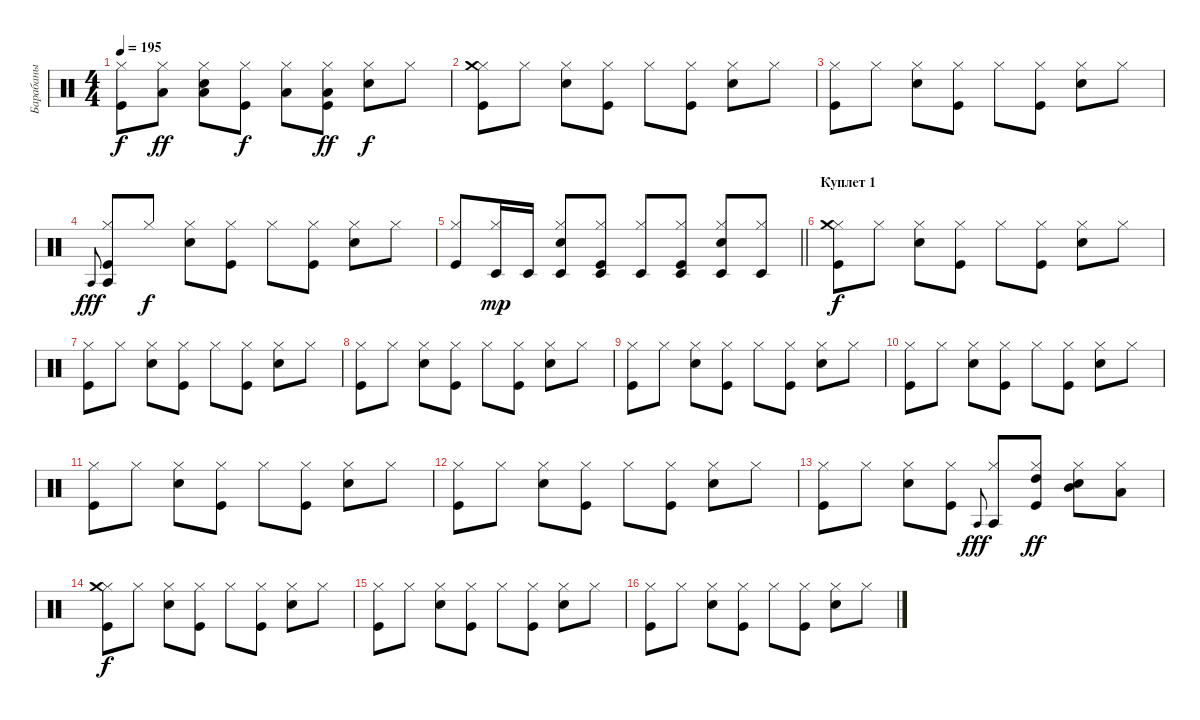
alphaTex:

\track ("Барабаны" "Барабаны") {instrument percussion}
\staff {score}
\articulation defaults
\ts (4 4)
\tempo 195
\clef neutral
\ks c
("Kick (hit)" "Hi-Hat (closed)").8{dy f} ("Hi-Hat (closed)" "Low Tom (hit)").8{dy ff} ("Snare (hit) 2" "Hi-Hat (closed)" "Low Tom (hit)").8 ("Kick (hit)" "Hi-Hat (closed)").8{dy f} ("Hi-Hat (closed)" "Low Tom (hit)").8 ("Kick (hit)" "Hi-Hat (closed)" "Low Tom (hit)").8{dy ff} ("Snare (hit) 2" "Hi-Hat (closed)").8{dy f} "Hi-Hat (closed)".8 |
("Kick (hit)" "Hi-Hat (closed)" "Crash medium (hit)").8 "Hi-Hat (closed)".8 ("Snare (hit) 2" "Hi-Hat (closed)").8 ("Kick (hit)" "Hi-Hat (closed)").8 "Hi-Hat (closed)".8 ("Kick (hit)" "Hi-Hat (closed)").8 ("Snare (hit) 2" "Hi-Hat (closed)").8 "Hi-Hat (closed)".8 |
("Kick (hit)" "Hi-Hat (closed)").8 "Hi-Hat (closed)".8 ("Snare (hit) 2" "Hi-Hat (closed)").8 ("Kick (hit)" "Hi-Hat (closed)").8 "Hi-Hat (closed)".8 ("Kick (hit)" "Hi-Hat (closed)").8 ("Snare (hit) 2" "Hi-Hat (closed)").8 "Hi-Hat (closed)".8 |
"Agogo tow (hit)".8{gr onbeat dy fff} ("Kick (hit)" "Hi-Hat (closed)" "Agogo tow (hit)").8 "Hi-Hat (closed)".8{dy f} ("Snare (hit) 2" "Hi-Hat (closed)").8 ("Kick (hit)" "Hi-Hat (closed)").8 "Hi-Hat (closed)".8 ("Kick (hit)" "Hi-Hat (closed)").8 ("Snare (hit) 2" "Hi-Hat (closed)").8 "Hi-Hat (closed)".8 |
\barLineRight lightlight
("Kick (hit)" "Hi-Hat (closed)").8 ("Hi-Hat (closed)" "Timbale low (hit)").16{dy mp} "Timbale low (hit)".16 ("Snare (hit) 2" "Hi-Hat (closed)" "Timbale low (hit)").8 ("Kick (hit)" "Hi-Hat (closed)" "Timbale low (hit)").8 ("Hi-Hat (closed)" "Timbale low (hit)").8 ("Kick (hit)" "Hi-Hat (closed)" "Timbale low (hit)").8 ("Snare (hit) 2" "Hi-Hat (closed)" "Timbale low (hit)").8 ("Hi-Hat (closed)" "Timbale low (hit)").8 |
\section ("" "Куплет 1")
("Kick (hit)" "Hi-Hat (closed)" "Crash medium (hit)").8{dy f} "Hi-Hat (closed)".8 ("Snare (hit) 2" "Hi-Hat (closed)").8 ("Kick (hit)" "Hi-Hat (closed)").8 "Hi-Hat (closed)".8 ("Kick (hit)" "Hi-Hat (closed)").8 ("Snare (hit) 2" "Hi-Hat (closed)").8 "Hi-Hat (closed)".8 |
("Kick (hit)" "Hi-Hat (closed)").8 "Hi-Hat (closed)".8 ("Snare (hit) 2" "Hi-Hat (closed)").8 ("Kick (hit)" "Hi-Hat (closed)").8 "Hi-Hat (closed)".8 ("Kick (hit)" "Hi-Hat (closed)").8 ("Snare (hit) 2" "Hi-Hat (closed)").8 "Hi-Hat (closed)".8 |
("Kick (hit)" "Hi-Hat (closed)").8 "Hi-Hat (closed)".8 ("Snare (hit) 2" "Hi-Hat (closed)").8 ("Kick (hit)" "Hi-Hat (closed)").8 "Hi-Hat (closed)".8 ("Kick (hit)" "Hi-Hat (closed)").8 ("Snare (hit) 2" "Hi-Hat (closed)").8 "Hi-Hat (closed)".8 |
("Kick (hit)" "Hi-Hat (closed)").8 "Hi-Hat (closed)".8 ("Snare (hit) 2" "Hi-Hat (closed)").8 ("Kick (hit)" "Hi-Hat (closed)").8 "Hi-Hat (closed)".8 ("Kick (hit)" "Hi-Hat (closed)").8 ("Snare (hit) 2" "Hi-Hat (closed)").8 "Hi-Hat (closed)".8 |
("Kick (hit)" "Hi-Hat (closed)").8 "Hi-Hat (closed)".8 ("Snare (hit) 2" "Hi-Hat (closed)").8 ("Kick (hit)" "Hi-Hat (closed)").8 "Hi-Hat (closed)".8 ("Kick (hit)" "Hi-Hat (closed)").8 ("Snare (hit) 2" "Hi-Hat (closed)").8 "Hi-Hat (closed)".8 |
("Kick (hit)" "Hi-Hat (closed)").8 "Hi-Hat (closed)".8 ("Snare (hit) 2" "Hi-Hat (closed)").8 ("Kick (hit)" "Hi-Hat (closed)").8 "Hi-Hat (closed)".8 ("Kick (hit)" "Hi-Hat (closed)").8 ("Snare (hit) 2" "Hi-Hat (closed)").8 "Hi-Hat (closed)".8 |
("Kick (hit)" "Hi-Hat (closed)").8 "Hi-Hat (closed)".8 ("Snare (hit) 2" "Hi-Hat (closed)").8 ("Kick (hit)" "Hi-Hat (closed)").8 "Hi-Hat (closed)".8 ("Kick (hit)" "Hi-Hat (closed)").8 ("Snare (hit) 2" "Hi-Hat (closed)").8 "Hi-Hat (closed)".8 |
("Kick (hit)" "Hi-Hat (closed)").8 "Hi-Hat (closed)".8 ("Snare (hit) 2" "Hi-Hat (closed)").8 ("Kick (hit)" "Hi-Hat (closed)").8 "Agogo tow (hit)".8{gr onbeat dy fff} ("Hi-Hat (closed)" "Agogo tow (hit)").8 ("Kick (hit)" "Hi-Hat (closed)" "High Tom (hit)").8{dy ff} ("Snare (hit) 2" "Hi-Hat (closed)" "Mid Tom (hit)").8 ("Hi-Hat (closed)" "Low Tom (hit)").8 |
("Kick (hit)" "Hi-Hat (closed)" "Crash medium (hit)").8{dy f} "Hi-Hat (closed)".8 ("Snare (hit) 2" "Hi-Hat (closed)").8 ("Kick (hit)" "Hi-Hat (closed)").8 "Hi-Hat (closed)".8 ("Kick (hit)" "Hi-Hat (closed)").8 ("Snare (hit) 2" "Hi-Hat (closed)").8 "Hi-Hat (closed)".8 |
("Kick (hit)" "Hi-Hat (closed)").8 "Hi-Hat (closed)".8 ("Snare (hit) 2" "Hi-Hat (closed)").8 ("Kick (hit)" "Hi-Hat (closed)").8 "Hi-Hat (closed)".8 ("Kick (hit)" "Hi-Hat (closed)").8 ("Snare (hit) 2" "Hi-Hat (closed)").8 "Hi-Hat (closed)".8 |
("Kick (hit)" "Hi-Hat (closed)").8 "Hi-Hat (closed)".8 ("Snare (hit) 2" "Hi-Hat (closed)").8 ("Kick (hit)" "Hi-Hat (closed)").8 "Hi-Hat (closed)".8 ("Kick (hit)" "Hi-Hat (closed)").8 ("Snare (hit) 2" "Hi-Hat (closed)").8 "Hi-Hat (closed)".8
